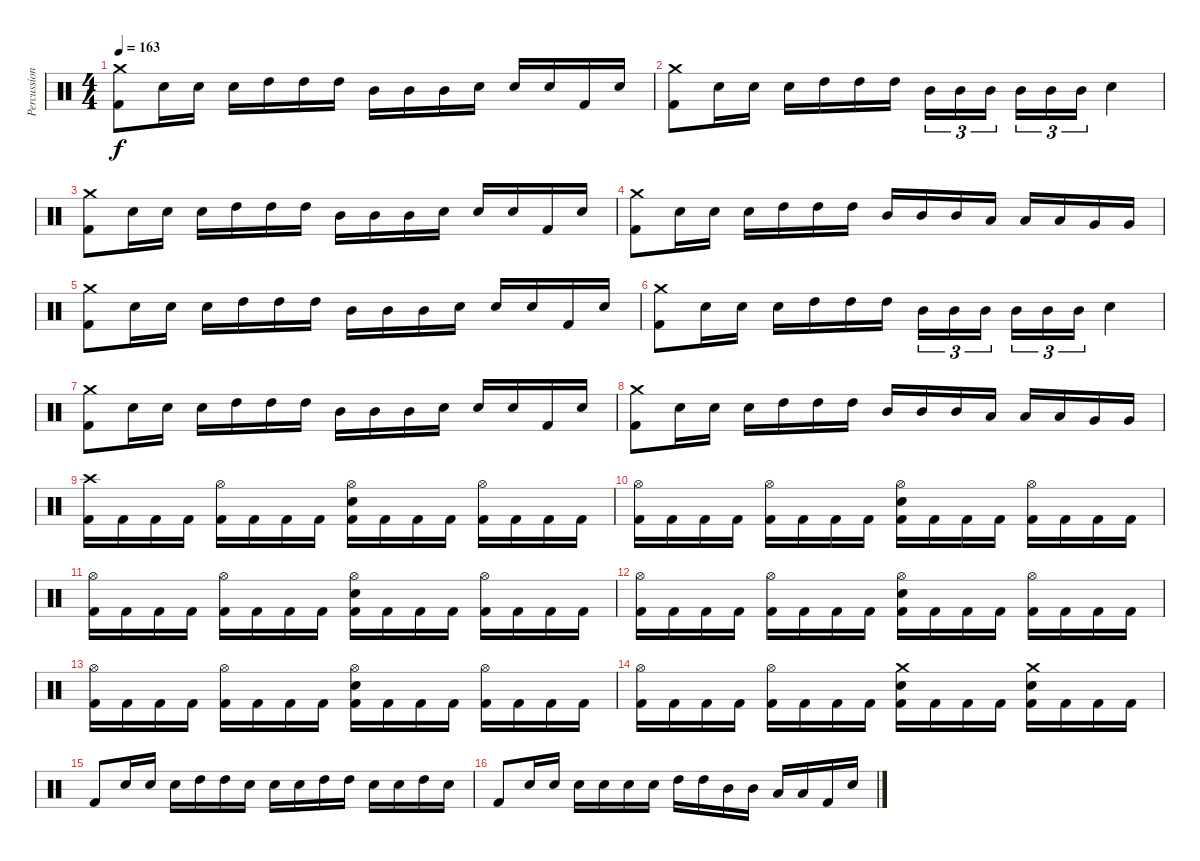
\track ("Percussion" "Percussion") {instrument percussion}
\staff {score}
\articulation defaults
\ts (4 4)
\tempo 163
\clef neutral
\ks c
("Crash medium (hit)" "Kick (hit) 2").8{dy f} "Electric Snare (hit)".16 "Electric Snare (hit)".16 "Electric Snare (hit)".16 "High Tom (hit)".16 "High Tom (hit)".16 "High Tom (hit)".16 "Mid Tom (hit)".16 "Mid Tom (hit)".16 "Mid Tom (hit)".16 "Electric Snare (hit)".16 "Electric Snare (hit)".16 "Electric Snare (hit)".16 "Kick (hit) 2".16 "Electric Snare (hit)".16 |
("Crash medium (hit)" "Kick (hit) 2").8 "Electric Snare (hit)".16 "Electric Snare (hit)".16 "Electric Snare (hit)".16 "High Tom (hit)".16 "High Tom (hit)".16 "High Tom (hit)".16 "Mid Tom (hit)".16{tu (3 2)} "Mid Tom (hit)".16{tu (3 2)} "Mid Tom (hit)".16{tu (3 2) beam splitsecondary} "Mid Tom (hit)".16{tu (3 2)} "Mid Tom (hit)".16{tu (3 2)} "Mid Tom (hit)".16{tu (3 2)} "Electric Snare (hit)".4 |
("Crash medium (hit)" "Kick (hit) 2").8 "Electric Snare (hit)".16 "Electric Snare (hit)".16 "Electric Snare (hit)".16 "High Tom (hit)".16 "High Tom (hit)".16 "High Tom (hit)".16 "Mid Tom (hit)".16 "Mid Tom (hit)".16 "Mid Tom (hit)".16 "Electric Snare (hit)".16 "Electric Snare (hit)".16 "Electric Snare (hit)".16 "Kick (hit) 2".16 "Electric Snare (hit)".16 |
("Crash medium (hit)" "Kick (hit) 2").8 "Electric Snare (hit)".16 "Electric Snare (hit)".16 "Electric Snare (hit)".16 "High Tom (hit)".16 "High Tom (hit)".16 "High Tom (hit)".16 "Mid Tom (hit)".16 "Mid Tom (hit)".16 "Mid Tom (hit)".16 "Low Tom (hit)".16 "Low Tom (hit)".16 "Low Tom (hit)".16 "Very Low Tom (hit)".16 "Very Low Tom (hit)".16 |
("Crash medium (hit)" "Kick (hit) 2").8 "Electric Snare (hit)".16 "Electric Snare (hit)".16 "Electric Snare (hit)".16 "High Tom (hit)".16 "High Tom (hit)".16 "High Tom (hit)".16 "Mid Tom (hit)".16 "Mid Tom (hit)".16 "Mid Tom (hit)".16 "Electric Snare (hit)".16 "Electric Snare (hit)".16 "Electric Snare (hit)".16 "Kick (hit) 2".16 "Electric Snare (hit)".16 |
("Crash medium (hit)" "Kick (hit) 2").8 "Electric Snare (hit)".16 "Electric Snare (hit)".16 "Electric Snare (hit)".16 "High Tom (hit)".16 "High Tom (hit)".16 "High Tom (hit)".16 "Mid Tom (hit)".16{tu (3 2)} "Mid Tom (hit)".16{tu (3 2)} "Mid Tom (hit)".16{tu (3 2) beam splitsecondary} "Mid Tom (hit)".16{tu (3 2)} "Mid Tom (hit)".16{tu (3 2)} "Mid Tom (hit)".16{tu (3 2)} "Electric Snare (hit)".4 |
("Crash medium (hit)" "Kick (hit) 2").8 "Electric Snare (hit)".16 "Electric Snare (hit)".16 "Electric Snare (hit)".16 "High Tom (hit)".16 "High Tom (hit)".16 "High Tom (hit)".16 "Mid Tom (hit)".16 "Mid Tom (hit)".16 "Mid Tom (hit)".16 "Electric Snare (hit)".16 "Electric Snare (hit)".16 "Electric Snare (hit)".16 "Kick (hit) 2".16 "Electric Snare (hit)".16 |
("Crash medium (hit)" "Kick (hit) 2").8 "Electric Snare (hit)".16 "Electric Snare (hit)".16 "Electric Snare (hit)".16 "High Tom (hit)".16 "High Tom (hit)".16 "High Tom (hit)".16 "Mid Tom (hit)".16 "Mid Tom (hit)".16 "Mid Tom (hit)".16 "Low Tom (hit)".16 "Low Tom (hit)".16 "Low Tom (hit)".16 "Very Low Tom (hit)".16 "Very Low Tom (hit)".16 |
("Crash high (hit)" "Kick (hit) 2").16 "Kick (hit) 2".16 "Kick (hit) 2".16 "Kick (hit) 2".16 ("Hi-Hat (open)" "Kick (hit) 2").16 "Kick (hit) 2".16 "Kick (hit) 2".16 "Kick (hit) 2".16 ("Hi-Hat (open)" "Electric Snare (hit)" "Kick (hit) 2").16 "Kick (hit) 2".16 "Kick (hit) 2".16 "Kick (hit) 2".16 ("Hi-Hat (open)" "Kick (hit) 2").16 "Kick (hit) 2".16 "Kick (hit) 2".16 "Kick (hit) 2".16 |
("Hi-Hat (open)" "Kick (hit) 2").16 "Kick (hit) 2".16 "Kick (hit) 2".16 "Kick (hit) 2".16 ("Hi-Hat (open)" "Kick (hit) 2").16 "Kick (hit) 2".16 "Kick (hit) 2".16 "Kick (hit) 2".16 ("Hi-Hat (open)" "Electric Snare (hit)" "Kick (hit) 2").16 "Kick (hit) 2".16 "Kick (hit) 2".16 "Kick (hit) 2".16 ("Hi-Hat (open)" "Kick (hit) 2").16 "Kick (hit) 2".16 "Kick (hit) 2".16 "Kick (hit) 2".16 |
("Hi-Hat (open)" "Kick (hit) 2").16 "Kick (hit) 2".16 "Kick (hit) 2".16 "Kick (hit) 2".16 ("Hi-Hat (open)" "Kick (hit) 2").16 "Kick (hit) 2".16 "Kick (hit) 2".16 "Kick (hit) 2".16 ("Hi-Hat (open)" "Electric Snare (hit)" "Kick (hit) 2").16 "Kick (hit) 2".16 "Kick (hit) 2".16 "Kick (hit) 2".16 ("Hi-Hat (open)" "Kick (hit) 2").16 "Kick (hit) 2".16 "Kick (hit) 2".16 "Kick (hit) 2".16 |
("Hi-Hat (open)" "Kick (hit) 2").16 "Kick (hit) 2".16 "Kick (hit) 2".16 "Kick (hit) 2".16 ("Hi-Hat (open)" "Kick (hit) 2").16 "Kick (hit) 2".16 "Kick (hit) 2".16 "Kick (hit) 2".16 ("Hi-Hat (open)" "Electric Snare (hit)" "Kick (hit) 2").16 "Kick (hit) 2".16 "Kick (hit) 2".16 "Kick (hit) 2".16 ("Hi-Hat (open)" "Kick (hit) 2").16 "Kick (hit) 2".16 "Kick (hit) 2".16 "Kick (hit) 2".16 |
("Hi-Hat (open)" "Kick (hit) 2").16 "Kick (hit) 2".16 "Kick (hit) 2".16 "Kick (hit) 2".16 ("Hi-Hat (open)" "Kick (hit) 2").16 "Kick (hit) 2".16 "Kick (hit) 2".16 "Kick (hit) 2".16 ("Hi-Hat (open)" "Electric Snare (hit)" "Kick (hit) 2").16 "Kick (hit) 2".16 "Kick (hit) 2".16 "Kick (hit) 2".16 ("Hi-Hat (open)" "Kick (hit) 2").16 "Kick (hit) 2".16 "Kick (hit) 2".16 "Kick (hit) 2".16 |
("Hi-Hat (open)" "Kick (hit) 2").16 "Kick (hit) 2".16 "Kick (hit) 2".16 "Kick (hit) 2".16 ("Hi-Hat (open)" "Kick (hit) 2").16 "Kick (hit) 2".16 "Kick (hit) 2".16 "Kick (hit) 2".16 ("Crash medium (hit)" "Electric Snare (hit)" "Kick (hit) 2").16 "Kick (hit) 2".16 "Kick (hit) 2".16 "Kick (hit) 2".16 ("Crash medium (hit)" "Electric Snare (hit)" "Kick (hit) 2").16 "Kick (hit) 2".16 "Kick (hit) 2".16 "Kick (hit) 2".16 |
"Kick (hit) 2".8 "Electric Snare (hit)".16 "Electric Snare (hit)".16 "Electric Snare (hit)".16 "High Tom (hit)".16 "High Tom (hit)".16 "Electric Snare (hit)".16 "Electric Snare (hit)".16 "Electric Snare (hit)".16 "High Tom (hit)".16 "High Tom (hit)".16 "Electric Snare (hit)".16 "Electric Snare (hit)".16 "High Tom (hit)".16 "Electric Snare (hit)".16 |
"Kick (hit) 2".8 "Electric Snare (hit)".16 "Electric Snare (hit)".16 "Electric Snare (hit)".16 "Electric Snare (hit)".16 "Electric Snare (hit)".16 "Electric Snare (hit)".16 "High Tom (hit)".16 "High Tom (hit)".16 "Mid Tom (hit)".16 "Mid Tom (hit)".16 "Low Tom (hit)".16 "Low Tom (hit)".16 "Kick (hit) 2".16 "Electric Snare (hit)".16
